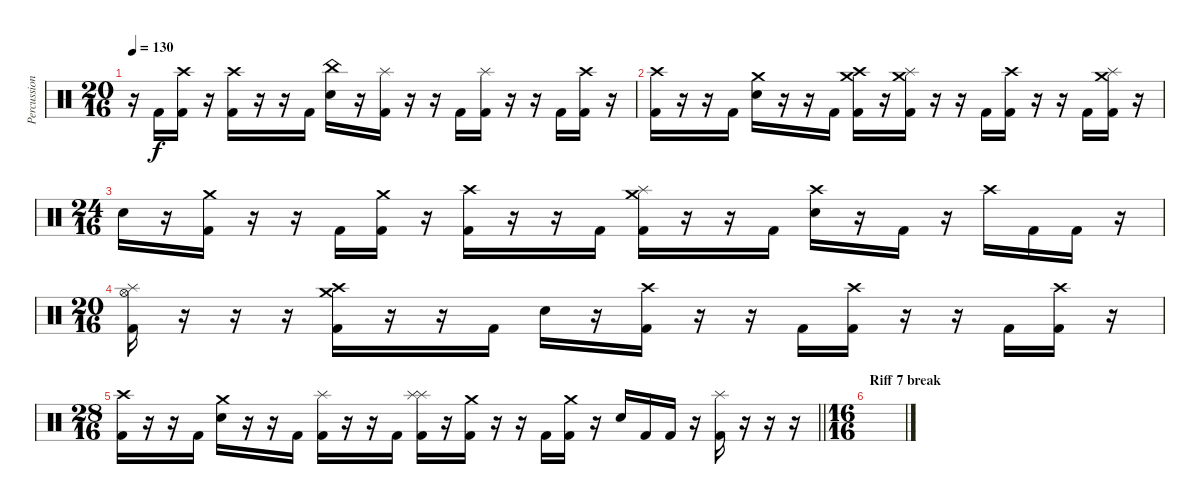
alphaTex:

\track ("Percussions" "Percussion") {instrument percussion}
\staff {score}
\articulation defaults
\ts (20 16)
\tempo 130
\clef neutral
\ks c
r.16{dy f} "Kick (hit) 2".16 ("Crash high (hit)" "Kick (hit) 2").16 r.16 ("Crash high (hit)" "Kick (hit) 2").16 r.16 r.16 "Kick (hit) 2".16 ("China (hit)" "Electric Snare (hit)").16 r.16 ("Splash (hit)" "Kick (hit) 2").16 r.16 r.16 "Kick (hit) 2".16 ("Splash (hit)" "Kick (hit) 2").16 r.16 r.16 "Kick (hit) 2".16 ("Crash high (hit)" "Kick (hit) 2").16 r.16 |
("Crash high (hit)" "Kick (hit) 2").16 r.16 r.16 "Kick (hit) 2".16 ("Crash medium (hit)" "Electric Snare (hit)").16 r.16 r.16 "Kick (hit) 2".16 ("Crash medium (hit)" "Crash high (hit)" "Kick (hit) 2").16 r.16 ("Crash medium (hit)" "Splash (hit)" "Kick (hit) 2").16 r.16 r.16 "Kick (hit) 2".16 ("Crash high (hit)" "Kick (hit) 2").16 r.16 r.16 "Kick (hit) 2".16 ("Splash (hit)" "Crash medium (hit)" "Kick (hit) 2").16 r.16 |
\ts (24 16)
"Electric Snare (hit)".16 r.16 ("Crash medium (hit)" "Kick (hit) 2").16 r.16 r.16 "Kick (hit) 2".16 ("Crash medium (hit)" "Kick (hit) 2").16 r.16 ("Crash high (hit)" "Kick (hit) 2").16 r.16 r.16 "Kick (hit) 2".16 ("Crash medium (hit)" "Splash (hit)" "Kick (hit) 2").16 r.16 r.16 "Kick (hit) 2".16 ("Crash high (hit)" "Electric Snare (hit)").16 r.16 "Kick (hit) 2".16 r.16 "Crash high (hit)".16 "Kick (hit) 2".16 "Kick (hit) 2".16 r.16 |
\ts (20 16)
("Splash (hit)" "Hi-Hat (open)" "Kick (hit) 2").16 r.16 r.16 r.16 ("Crash high (hit)" "Crash medium (hit)" "Kick (hit) 2").16 r.16 r.16 "Kick (hit) 2".16 "Electric Snare (hit)".16 r.16 ("Crash high (hit)" "Kick (hit) 2").16 r.16 r.16 "Kick (hit) 2".16 ("Crash high (hit)" "Kick (hit) 2").16 r.16 r.16 "Kick (hit) 2".16 ("Crash high (hit)" "Kick (hit) 2").16 r.16 |
\ts (28 16)
\barLineRight lightlight
("Crash high (hit)" "Kick (hit) 2").16 r.16 r.16 "Kick (hit) 2".16 ("Crash medium (hit)" "Electric Snare (hit)").16 r.16 r.16 "Kick (hit) 2".16 ("Splash (hit)" "Kick (hit) 2").16 r.16 r.16 "Kick (hit) 2".16 ("Splash (hit)" "Splash (hit)" "Kick (hit) 2").16 r.16 ("Crash medium (hit)" "Kick (hit) 2").16 r.16 r.16 "Kick (hit) 2".16 ("Crash medium (hit)" "Kick (hit) 2").16 r.16 "Electric Snare (hit)".16 "Kick (hit) 2".16 "Kick (hit) 2".16 r.16 ("Splash (hit)" "Kick (hit) 2").16 r.16 r.16 r.16 |
\ts (16 16)
\section ("" "Riff 7 break")
